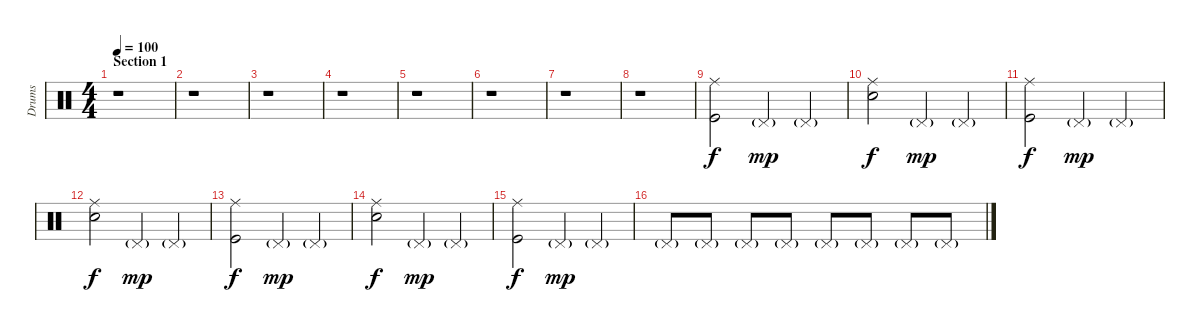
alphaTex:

\track ("Drums" "Drums") {instrument percussion}
\staff {score}
\articulation defaults
\ts (4 4)
\section ("" "Section 1")
\tempo 100
\clef neutral
\ks c
r.1{dy f} |
r.1 |
r.1 |
r.1 |
r.1 |
r.1 |
r.1 |
r.1 |
("Ride (middle)" "Kick (hit)").2 "Pedal Hi-Hat (hit)"{g}.4{dy mp} "Pedal Hi-Hat (hit)"{g}.4 |
("Ride (middle)" "Snare (hit) 2").2{dy f} "Pedal Hi-Hat (hit)"{g}.4{dy mp} "Pedal Hi-Hat (hit)"{g}.4 |
("Ride (middle)" "Kick (hit)").2{dy f} "Pedal Hi-Hat (hit)"{g}.4{dy mp} "Pedal Hi-Hat (hit)"{g}.4 |
("Ride (middle)" "Snare (hit) 2").2{dy f} "Pedal Hi-Hat (hit)"{g}.4{dy mp} "Pedal Hi-Hat (hit)"{g}.4 |
("Ride (middle)" "Kick (hit)").2{dy f} "Pedal Hi-Hat (hit)"{g}.4{dy mp} "Pedal Hi-Hat (hit)"{g}.4 |
("Ride (middle)" "Snare (hit) 2").2{dy f} "Pedal Hi-Hat (hit)"{g}.4{dy mp} "Pedal Hi-Hat (hit)"{g}.4 |
("Ride (middle)" "Kick (hit)").2{dy f} "Pedal Hi-Hat (hit)"{g}.4{dy mp} "Pedal Hi-Hat (hit)"{g}.4 |
"Pedal Hi-Hat (hit)"{g}.8 "Pedal Hi-Hat (hit)"{g}.8 "Pedal Hi-Hat (hit)"{g}.8 "Pedal Hi-Hat (hit)"{g}.8 "Pedal Hi-Hat (hit)"{g}.8 "Pedal Hi-Hat (hit)"{g}.8 "Pedal Hi-Hat (hit)"{g}.8 "Pedal Hi-Hat (hit)"{g}.8
